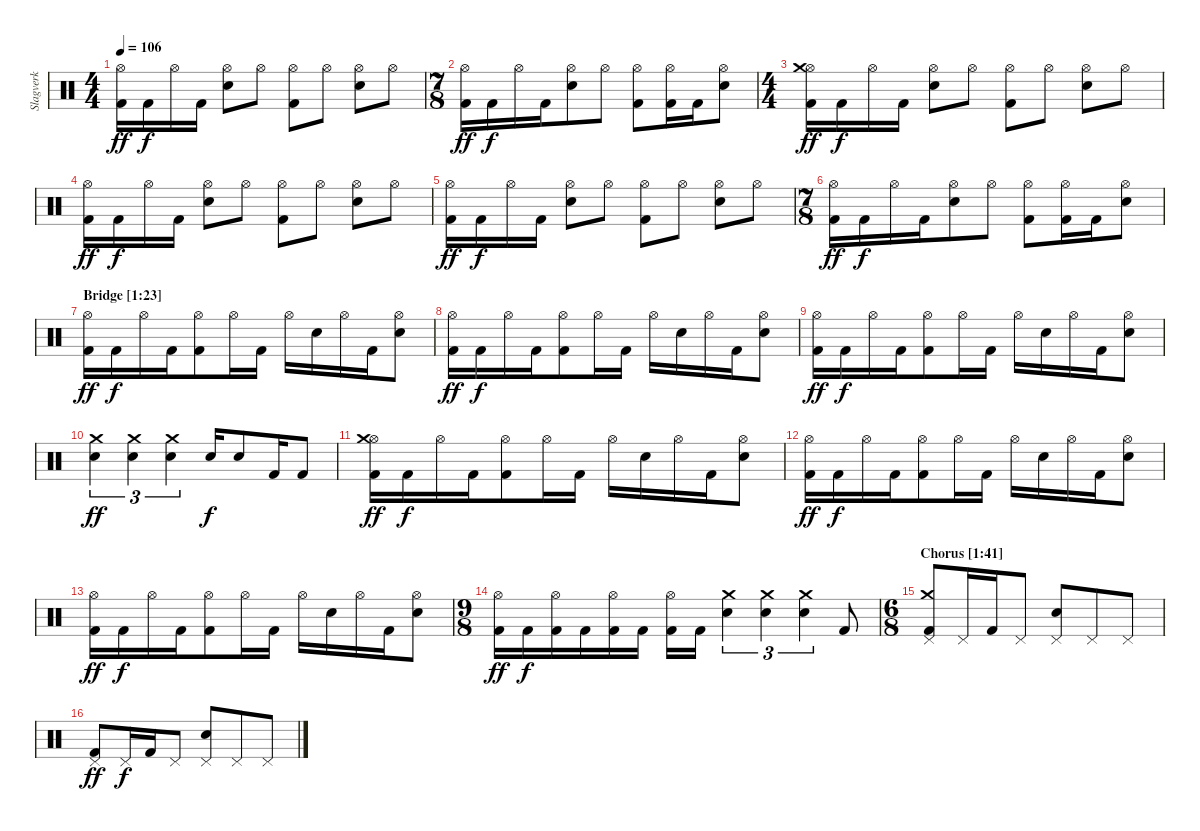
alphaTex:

\track ("Slagverk" "Slagverk") {instrument percussion}
\staff {score}
\articulation defaults
\ts (4 4)
\tempo 106
\clef neutral
\ks c
("Hi-Hat (open)" "Kick (hit) 2").16{dy ff} "Kick (hit) 2".16{dy f} "Hi-Hat (open)".16 "Kick (hit) 2".16 ("Hi-Hat (open)" "Electric Snare (hit)").8 "Hi-Hat (open)".8 ("Hi-Hat (open)" "Kick (hit) 2").8 "Hi-Hat (open)".8 ("Hi-Hat (open)" "Electric Snare (hit)").8 "Hi-Hat (open)".8 |
\ts (7 8)
("Hi-Hat (open)" "Kick (hit) 2").16{dy ff} "Kick (hit) 2".16{dy f} "Hi-Hat (open)".16 "Kick (hit) 2".16 ("Hi-Hat (open)" "Electric Snare (hit)").8 "Hi-Hat (open)".8 ("Hi-Hat (open)" "Kick (hit) 2").8 ("Hi-Hat (open)" "Kick (hit) 2").16 "Kick (hit) 2".16 ("Hi-Hat (open)" "Electric Snare (hit)").8 |
\ts (4 4)
\section ("" "")
("Hi-Hat (open)" "Crash medium (hit)" "Kick (hit) 2").16{dy ff} "Kick (hit) 2".16{dy f} "Hi-Hat (open)".16 "Kick (hit) 2".16 ("Hi-Hat (open)" "Electric Snare (hit)").8 "Hi-Hat (open)".8 ("Hi-Hat (open)" "Kick (hit) 2").8 "Hi-Hat (open)".8 ("Hi-Hat (open)" "Electric Snare (hit)").8 "Hi-Hat (open)".8 |
("Hi-Hat (open)" "Kick (hit) 2").16{dy ff} "Kick (hit) 2".16{dy f} "Hi-Hat (open)".16 "Kick (hit) 2".16 ("Hi-Hat (open)" "Electric Snare (hit)").8 "Hi-Hat (open)".8 ("Hi-Hat (open)" "Kick (hit) 2").8 "Hi-Hat (open)".8 ("Hi-Hat (open)" "Electric Snare (hit)").8 "Hi-Hat (open)".8 |
("Hi-Hat (open)" "Kick (hit) 2").16{dy ff} "Kick (hit) 2".16{dy f} "Hi-Hat (open)".16 "Kick (hit) 2".16 ("Hi-Hat (open)" "Electric Snare (hit)").8 "Hi-Hat (open)".8 ("Hi-Hat (open)" "Kick (hit) 2").8 "Hi-Hat (open)".8 ("Hi-Hat (open)" "Electric Snare (hit)").8 "Hi-Hat (open)".8 |
\ts (7 8)
("Hi-Hat (open)" "Kick (hit) 2").16{dy ff} "Kick (hit) 2".16{dy f} "Hi-Hat (open)".16 "Kick (hit) 2".16 ("Hi-Hat (open)" "Electric Snare (hit)").8 "Hi-Hat (open)".8 ("Hi-Hat (open)" "Kick (hit) 2").8 ("Hi-Hat (open)" "Kick (hit) 2").16 "Kick (hit) 2".16 ("Hi-Hat (open)" "Electric Snare (hit)").8 |
\section ("" "Bridge [1:23]")
("Hi-Hat (open)" "Kick (hit) 2").16{dy ff} "Kick (hit) 2".16{dy f} "Hi-Hat (open)".16 "Kick (hit) 2".16 ("Hi-Hat (open)" "Kick (hit) 2").8 "Hi-Hat (open)".16 "Kick (hit) 2".16 "Hi-Hat (open)".16 "Electric Snare (hit)".16 "Hi-Hat (open)".16 "Kick (hit) 2".16 ("Hi-Hat (open)" "Electric Snare (hit)").8 |
("Hi-Hat (open)" "Kick (hit) 2").16{dy ff} "Kick (hit) 2".16{dy f} "Hi-Hat (open)".16 "Kick (hit) 2".16 ("Hi-Hat (open)" "Kick (hit) 2").8 "Hi-Hat (open)".16 "Kick (hit) 2".16 "Hi-Hat (open)".16 "Electric Snare (hit)".16 "Hi-Hat (open)".16 "Kick (hit) 2".16 ("Hi-Hat (open)" "Electric Snare (hit)").8 |
("Hi-Hat (open)" "Kick (hit) 2").16{dy ff} "Kick (hit) 2".16{dy f} "Hi-Hat (open)".16 "Kick (hit) 2".16 ("Hi-Hat (open)" "Kick (hit) 2").8 "Hi-Hat (open)".16 "Kick (hit) 2".16 "Hi-Hat (open)".16 "Electric Snare (hit)".16 "Hi-Hat (open)".16 "Kick (hit) 2".16 ("Hi-Hat (open)" "Electric Snare (hit)").8 |
("Crash medium (hit)" "Electric Snare (hit)").4{tu (3 2) dy ff} ("Crash medium (hit)" "Electric Snare (hit)").4{tu (3 2)} ("Crash medium (hit)" "Electric Snare (hit)").4{tu (3 2)} "Electric Snare (hit)".16{dy f} "Electric Snare (hit)".8 "Kick (hit) 2".16 "Kick (hit) 2".8 |
\section ("" "")
("Hi-Hat (open)" "Crash medium (hit)" "Kick (hit) 2").16{dy ff} "Kick (hit) 2".16{dy f} "Hi-Hat (open)".16 "Kick (hit) 2".16 ("Hi-Hat (open)" "Kick (hit) 2").8 "Hi-Hat (open)".16 "Kick (hit) 2".16 "Hi-Hat (open)".16 "Electric Snare (hit)".16 "Hi-Hat (open)".16 "Kick (hit) 2".16 ("Hi-Hat (open)" "Electric Snare (hit)").8 |
("Hi-Hat (open)" "Kick (hit) 2").16{dy ff} "Kick (hit) 2".16{dy f} "Hi-Hat (open)".16 "Kick (hit) 2".16 ("Hi-Hat (open)" "Kick (hit) 2").8 "Hi-Hat (open)".16 "Kick (hit) 2".16 "Hi-Hat (open)".16 "Electric Snare (hit)".16 "Hi-Hat (open)".16 "Kick (hit) 2".16 ("Hi-Hat (open)" "Electric Snare (hit)").8 |
("Hi-Hat (open)" "Kick (hit) 2").16{dy ff} "Kick (hit) 2".16{dy f} "Hi-Hat (open)".16 "Kick (hit) 2".16 ("Hi-Hat (open)" "Kick (hit) 2").8 "Hi-Hat (open)".16 "Kick (hit) 2".16 "Hi-Hat (open)".16 "Electric Snare (hit)".16 "Hi-Hat (open)".16 "Kick (hit) 2".16 ("Hi-Hat (open)" "Electric Snare (hit)").8 |
\ts (9 8)
("Hi-Hat (open)" "Kick (hit) 2").16{dy ff} "Kick (hit) 2".16{dy f} ("Hi-Hat (open)" "Kick (hit) 2").16 "Kick (hit) 2".16 ("Hi-Hat (open)" "Kick (hit) 2").16 "Kick (hit) 2".16 ("Hi-Hat (open)" "Kick (hit) 2").16 "Kick (hit) 2".16 ("Crash medium (hit)" "Electric Snare (hit)").4{tu (3 2)} ("Crash medium (hit)" "Electric Snare (hit)").4{tu (3 2)} ("Crash medium (hit)" "Electric Snare (hit)").4{tu (3 2)} "Kick (hit) 2".8 |
\ts (6 8)
\section ("" "Chorus [1:41]")
("Pedal Hi-Hat (hit)" "Crash medium (hit)" "Kick (hit) 2").8 "Pedal Hi-Hat (hit)".16 "Kick (hit) 2".16 "Pedal Hi-Hat (hit)".8 ("Pedal Hi-Hat (hit)" "Electric Snare (hit)").8 "Pedal Hi-Hat (hit)".8 "Pedal Hi-Hat (hit)".8 |
("Pedal Hi-Hat (hit)" "Kick (hit) 2").8{dy ff} "Pedal Hi-Hat (hit)".16{dy f} "Kick (hit) 2".16 "Pedal Hi-Hat (hit)".8 ("Pedal Hi-Hat (hit)" "Electric Snare (hit)").8 "Pedal Hi-Hat (hit)".8 "Pedal Hi-Hat (hit)".8
